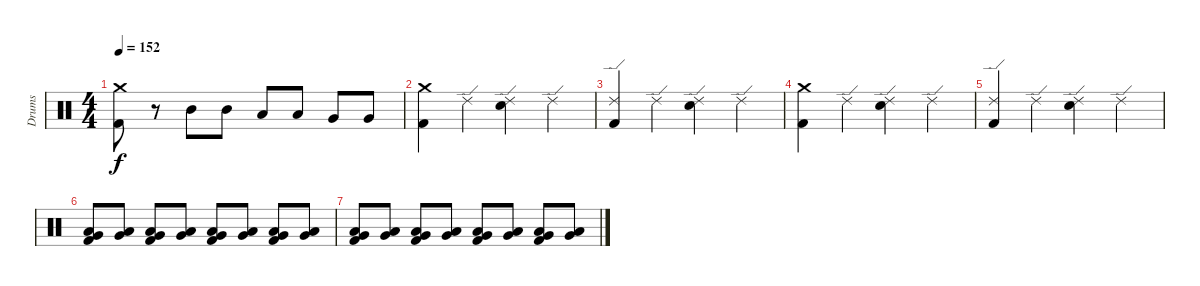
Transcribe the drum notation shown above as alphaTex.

\track ("Drums" "Drums") {instrument percussion}
\staff {score}
\articulation defaults
\ts (4 4)
\tempo 152
\clef neutral
\ks c
("Crash medium (hit)" "Kick (hit) 2").8{dy f} r.8 "Mid Tom (hit)".8 "Mid Tom (hit)".8 "Low Tom (hit)".8 "Low Tom (hit)".8 "Very Low Tom (hit)".8 "Very Low Tom (hit)".8 |
("Crash medium (hit)" "Kick (hit) 2").4 "Ride (edge) 2".4 ("Ride (edge) 2" "Electric Snare (hit)").4 "Ride (edge) 2".4 |
("Ride (edge) 2" "Kick (hit) 2").4 "Ride (edge) 2".4 ("Ride (edge) 2" "Electric Snare (hit)").4 "Ride (edge) 2".4 |
("Crash medium (hit)" "Kick (hit) 2").4 "Ride (edge) 2".4 ("Ride (edge) 2" "Electric Snare (hit)").4 "Ride (edge) 2".4 |
("Ride (edge) 2" "Kick (hit) 2").4 "Ride (edge) 2".4 ("Ride (edge) 2" "Electric Snare (hit)").4 "Ride (edge) 2".4 |
("Low Tom (hit)" "Very Low Tom (hit)" "Kick (hit) 2").8 ("Low Tom (hit)" "Very Low Tom (hit)").8 ("Low Tom (hit)" "Very Low Tom (hit)" "Kick (hit) 2").8 ("Low Tom (hit)" "Very Low Tom (hit)").8 ("Low Tom (hit)" "Very Low Tom (hit)" "Kick (hit) 2").8 ("Low Tom (hit)" "Very Low Tom (hit)").8 ("Low Tom (hit)" "Very Low Tom (hit)" "Kick (hit) 2").8 ("Low Tom (hit)" "Very Low Tom (hit)").8 |
("Low Tom (hit)" "Very Low Tom (hit)" "Kick (hit) 2").8 ("Low Tom (hit)" "Very Low Tom (hit)").8 ("Low Tom (hit)" "Very Low Tom (hit)" "Kick (hit) 2").8 ("Low Tom (hit)" "Very Low Tom (hit)").8 ("Low Tom (hit)" "Very Low Tom (hit)" "Kick (hit) 2").8 ("Low Tom (hit)" "Very Low Tom (hit)").8 ("Low Tom (hit)" "Very Low Tom (hit)" "Kick (hit) 2").8 ("Low Tom (hit)" "Very Low Tom (hit)").8
